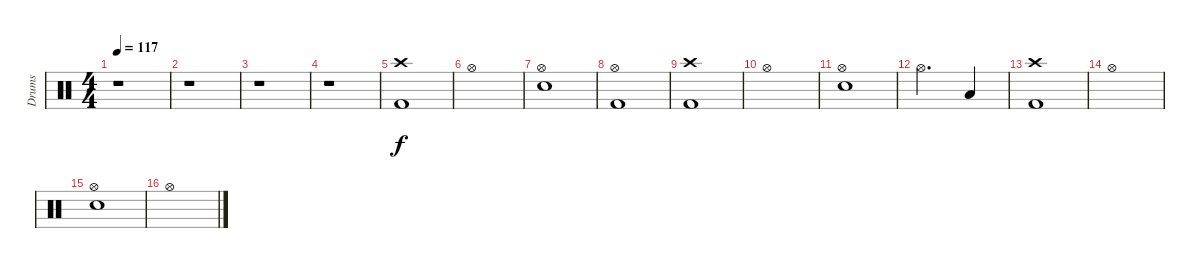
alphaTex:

\track ("Drums" "Drums") {instrument percussion}
\staff {score}
\articulation defaults
\ts (4 4)
\tempo 117
\clef neutral
\ks c
r.1{dy f} |
r.1 |
r.1 |
r.1 |
("Crash high (hit)" "Kick (hit) 2").1 |
"Hi-Hat (open)".1 |
("Hi-Hat (open)" "Snare (hit) 2").1 |
("Hi-Hat (open)" "Kick (hit) 2").1 |
("Crash high (hit)" "Kick (hit) 2").1 |
"Hi-Hat (open)".1 |
("Hi-Hat (open)" "Snare (hit) 2").1 |
"Hi-Hat (open)".2{d} "Low Tom (hit)".4 |
("Crash high (hit)" "Kick (hit) 2").1 |
"Hi-Hat (open)".1 |
("Hi-Hat (open)" "Snare (hit) 2").1 |
"Hi-Hat (open)".1
